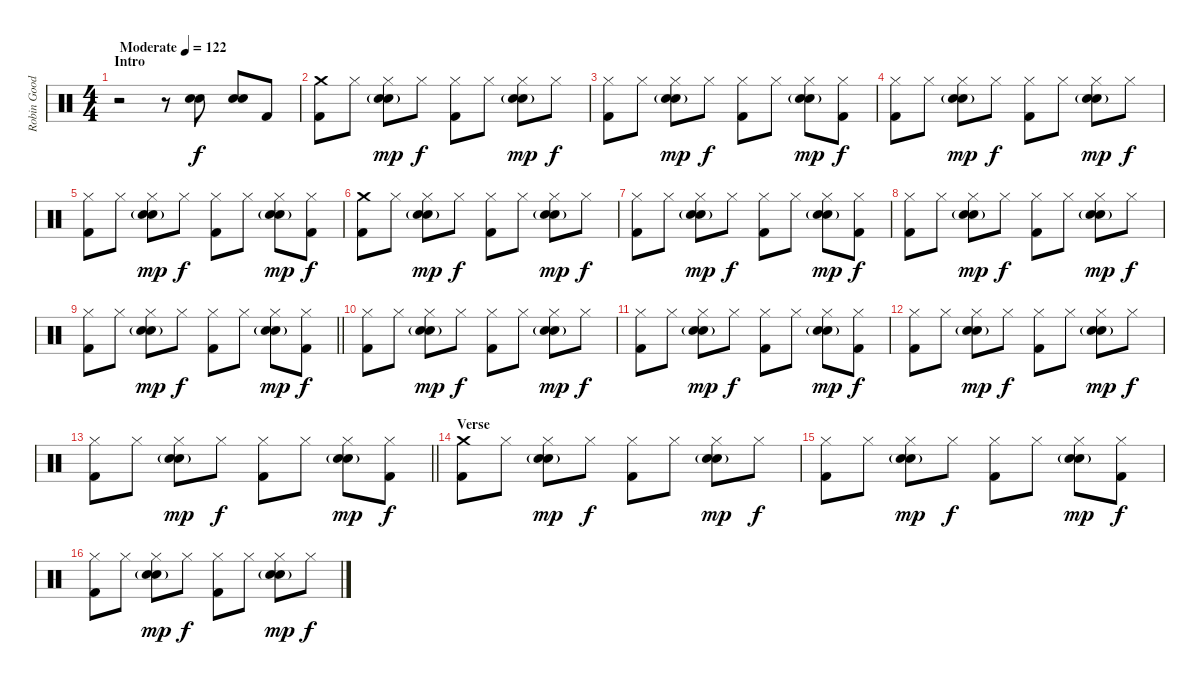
\track ("Robin Goodridge: Drums" "Robin Good") {instrument percussion}
\staff {score}
\articulation defaults
\ts (4 4)
\section ("" "Intro")
\tempo (122 "Moderate")
\clef neutral
\ks c
r.2{dy f} r.8 ("Electric Snare (hit)" "Electric Snare (hit)").8 ("Electric Snare (hit)" "Electric Snare (hit)").8 "Kick (hit) 2".8 |
("Crash medium (hit)" "Kick (hit) 2").8 "Hi-Hat (closed)".8 ("Hi-Hat (closed)" "Electric Snare (hit)" "Hand Clap (hit)"{g}).8{dy mp} "Hi-Hat (closed)".8{dy f} ("Hi-Hat (closed)" "Kick (hit) 2").8 "Hi-Hat (closed)".8 ("Hi-Hat (closed)" "Electric Snare (hit)" "Hand Clap (hit)"{g}).8{dy mp} "Hi-Hat (closed)".8{dy f} |
("Hi-Hat (closed)" "Kick (hit) 2").8 "Hi-Hat (closed)".8 ("Hi-Hat (closed)" "Electric Snare (hit)" "Hand Clap (hit)"{g}).8{dy mp} "Hi-Hat (closed)".8{dy f} ("Hi-Hat (closed)" "Kick (hit) 2").8 "Hi-Hat (closed)".8 ("Hi-Hat (closed)" "Electric Snare (hit)" "Hand Clap (hit)"{g}).8{dy mp} ("Hi-Hat (closed)" "Kick (hit) 2").8{dy f} |
("Hi-Hat (closed)" "Kick (hit) 2").8 "Hi-Hat (closed)".8 ("Hi-Hat (closed)" "Electric Snare (hit)" "Hand Clap (hit)"{g}).8{dy mp} "Hi-Hat (closed)".8{dy f} ("Hi-Hat (closed)" "Kick (hit) 2").8 "Hi-Hat (closed)".8 ("Hi-Hat (closed)" "Electric Snare (hit)" "Hand Clap (hit)"{g}).8{dy mp} "Hi-Hat (closed)".8{dy f} |
("Hi-Hat (closed)" "Kick (hit) 2").8 "Hi-Hat (closed)".8 ("Hi-Hat (closed)" "Electric Snare (hit)" "Hand Clap (hit)"{g}).8{dy mp} "Hi-Hat (closed)".8{dy f} ("Hi-Hat (closed)" "Kick (hit) 2").8 "Hi-Hat (closed)".8 ("Hi-Hat (closed)" "Electric Snare (hit)" "Hand Clap (hit)"{g}).8{dy mp} ("Hi-Hat (closed)" "Kick (hit) 2").8{dy f} |
("Crash medium (hit)" "Kick (hit) 2").8 "Hi-Hat (closed)".8 ("Hi-Hat (closed)" "Electric Snare (hit)" "Hand Clap (hit)"{g}).8{dy mp} "Hi-Hat (closed)".8{dy f} ("Hi-Hat (closed)" "Kick (hit) 2").8 "Hi-Hat (closed)".8 ("Hi-Hat (closed)" "Electric Snare (hit)" "Hand Clap (hit)"{g}).8{dy mp} "Hi-Hat (closed)".8{dy f} |
("Hi-Hat (closed)" "Kick (hit) 2").8 "Hi-Hat (closed)".8 ("Hi-Hat (closed)" "Electric Snare (hit)" "Hand Clap (hit)"{g}).8{dy mp} "Hi-Hat (closed)".8{dy f} ("Hi-Hat (closed)" "Kick (hit) 2").8 "Hi-Hat (closed)".8 ("Hi-Hat (closed)" "Electric Snare (hit)" "Hand Clap (hit)"{g}).8{dy mp} ("Hi-Hat (closed)" "Kick (hit) 2").8{dy f} |
("Hi-Hat (closed)" "Kick (hit) 2").8 "Hi-Hat (closed)".8 ("Hi-Hat (closed)" "Electric Snare (hit)" "Hand Clap (hit)"{g}).8{dy mp} "Hi-Hat (closed)".8{dy f} ("Hi-Hat (closed)" "Kick (hit) 2").8 "Hi-Hat (closed)".8 ("Hi-Hat (closed)" "Electric Snare (hit)" "Hand Clap (hit)"{g}).8{dy mp} "Hi-Hat (closed)".8{dy f} |
\barLineRight lightlight
("Hi-Hat (closed)" "Kick (hit) 2").8 "Hi-Hat (closed)".8 ("Hi-Hat (closed)" "Electric Snare (hit)" "Hand Clap (hit)"{g}).8{dy mp} "Hi-Hat (closed)".8{dy f} ("Hi-Hat (closed)" "Kick (hit) 2").8 "Hi-Hat (closed)".8 ("Hi-Hat (closed)" "Electric Snare (hit)" "Hand Clap (hit)"{g}).8{dy mp} ("Hi-Hat (closed)" "Kick (hit) 2").8{dy f} |
("Hi-Hat (closed)" "Kick (hit) 2").8 "Hi-Hat (closed)".8 ("Hi-Hat (closed)" "Electric Snare (hit)" "Hand Clap (hit)"{g}).8{dy mp} "Hi-Hat (closed)".8{dy f} ("Hi-Hat (closed)" "Kick (hit) 2").8 "Hi-Hat (closed)".8 ("Hi-Hat (closed)" "Electric Snare (hit)" "Hand Clap (hit)"{g}).8{dy mp} "Hi-Hat (closed)".8{dy f} |
("Hi-Hat (closed)" "Kick (hit) 2").8 "Hi-Hat (closed)".8 ("Hi-Hat (closed)" "Electric Snare (hit)" "Hand Clap (hit)"{g}).8{dy mp} "Hi-Hat (closed)".8{dy f} ("Hi-Hat (closed)" "Kick (hit) 2").8 "Hi-Hat (closed)".8 ("Hi-Hat (closed)" "Electric Snare (hit)" "Hand Clap (hit)"{g}).8{dy mp} ("Hi-Hat (closed)" "Kick (hit) 2").8{dy f} |
("Hi-Hat (closed)" "Kick (hit) 2").8 "Hi-Hat (closed)".8 ("Hi-Hat (closed)" "Electric Snare (hit)" "Hand Clap (hit)"{g}).8{dy mp} "Hi-Hat (closed)".8{dy f} ("Hi-Hat (closed)" "Kick (hit) 2").8 "Hi-Hat (closed)".8 ("Hi-Hat (closed)" "Electric Snare (hit)" "Hand Clap (hit)"{g}).8{dy mp} "Hi-Hat (closed)".8{dy f} |
\barLineRight lightlight
("Hi-Hat (closed)" "Kick (hit) 2").8 "Hi-Hat (closed)".8 ("Hi-Hat (closed)" "Electric Snare (hit)" "Hand Clap (hit)"{g}).8{dy mp} "Hi-Hat (closed)".8{dy f} ("Hi-Hat (closed)" "Kick (hit) 2").8 "Hi-Hat (closed)".8 ("Hi-Hat (closed)" "Electric Snare (hit)" "Hand Clap (hit)"{g}).8{dy mp} ("Hi-Hat (closed)" "Kick (hit) 2").8{dy f} |
\section ("" "Verse")
("Crash medium (hit)" "Kick (hit) 2").8 "Hi-Hat (closed)".8 ("Hi-Hat (closed)" "Electric Snare (hit)" "Hand Clap (hit)"{g}).8{dy mp} "Hi-Hat (closed)".8{dy f} ("Hi-Hat (closed)" "Kick (hit) 2").8 "Hi-Hat (closed)".8 ("Hi-Hat (closed)" "Electric Snare (hit)" "Hand Clap (hit)"{g}).8{dy mp} "Hi-Hat (closed)".8{dy f} |
("Hi-Hat (closed)" "Kick (hit) 2").8 "Hi-Hat (closed)".8 ("Hi-Hat (closed)" "Electric Snare (hit)" "Hand Clap (hit)"{g}).8{dy mp} "Hi-Hat (closed)".8{dy f} ("Hi-Hat (closed)" "Kick (hit) 2").8 "Hi-Hat (closed)".8 ("Hi-Hat (closed)" "Electric Snare (hit)" "Hand Clap (hit)"{g}).8{dy mp} ("Hi-Hat (closed)" "Kick (hit) 2").8{dy f} |
("Hi-Hat (closed)" "Kick (hit) 2").8 "Hi-Hat (closed)".8 ("Hi-Hat (closed)" "Electric Snare (hit)" "Hand Clap (hit)"{g}).8{dy mp} "Hi-Hat (closed)".8{dy f} ("Hi-Hat (closed)" "Kick (hit) 2").8 "Hi-Hat (closed)".8 ("Hi-Hat (closed)" "Electric Snare (hit)" "Hand Clap (hit)"{g}).8{dy mp} "Hi-Hat (closed)".8{dy f}
